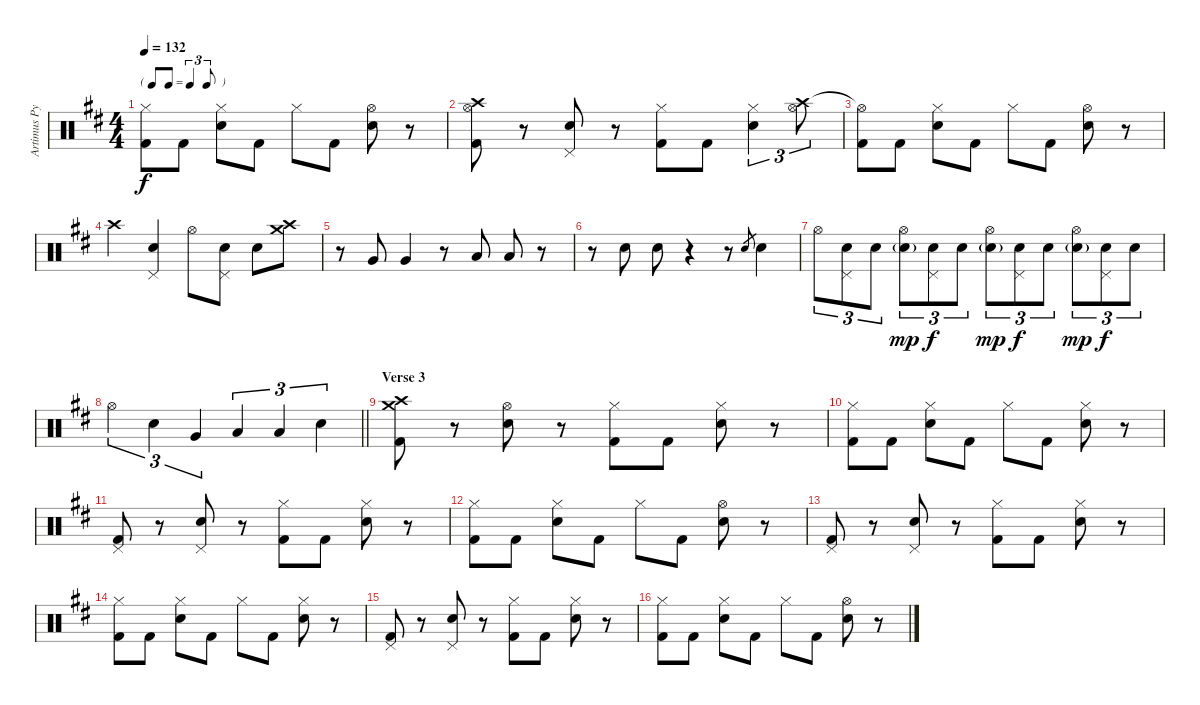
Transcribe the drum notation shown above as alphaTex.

\track ("Artimus Pyle - Drums" "Artimus Py") {solo instrument percussion}
\staff {score}
\articulation defaults
\ts (4 4)
\tf triplet8th
\tempo 132
\clef neutral
\ks d
("Hi-Hat (closed)"{t} "Kick (hit) 2").8{dy f} "Kick (hit) 2".8 ("Snare (hit) 2" "Hi-Hat (closed)").8 "Kick (hit) 2".8 "Hi-Hat (closed)".8 "Kick (hit) 2".8 ("Snare (hit) 2" "Hi-Hat (open)").8 r.8 |
("Crash high (hit)" "Hi-Hat (open)" "Kick (hit) 2").8 r.8 ("Snare (hit) 2" "Pedal Hi-Hat (hit)").8 r.8 ("Hi-Hat (closed)" "Kick (hit) 2").8 "Kick (hit) 2".8 ("Snare (hit) 2" "Hi-Hat (closed)").4{tu (3 2)} ("Crash high (hit)" "Hi-Hat (open)").8{tu (3 2)} |
("Hi-Hat (open)"{t} "Kick (hit) 2").8 "Kick (hit) 2".8 ("Snare (hit) 2" "Hi-Hat (closed)").8 "Kick (hit) 2".8 "Hi-Hat (closed)".8 "Kick (hit) 2".8 ("Snare (hit) 2" "Hi-Hat (open)").8 r.8 |
"Crash high (hit)".4 ("Snare (hit) 2" "Pedal Hi-Hat (hit)").4 "Hi-Hat (open)".8 ("Snare (hit) 2" "Pedal Hi-Hat (hit)").8 "Snare (hit) 2".8 ("Crash high (hit)" "Crash medium (hit)").8 |
r.8 "Very Low Tom (hit)".8 "Very Low Tom (hit)".4 r.8 "Low Tom (hit)".8 "Low Tom (hit)".8 r.8 |
r.8 "Snare (hit) 2".8 "Snare (hit) 2".8 r.4 r.8 "Snare (hit) 2".8{gr} "Snare (hit) 2".4 |
"Hi-Hat (open)".8{tu (3 2)} ("Snare (hit) 2" "Pedal Hi-Hat (hit)").8{tu (3 2)} "Snare (hit) 2".8{tu (3 2)} ("Snare (hit) 2"{g} "Hi-Hat (open)").8{tu (3 2) dy mp} ("Snare (hit) 2" "Pedal Hi-Hat (hit)").8{tu (3 2) dy f} "Snare (hit) 2".8{tu (3 2)} ("Snare (hit) 2"{g} "Hi-Hat (open)").8{tu (3 2) dy mp} ("Snare (hit) 2" "Pedal Hi-Hat (hit)").8{tu (3 2) dy f} "Snare (hit) 2".8{tu (3 2)} ("Snare (hit) 2"{g} "Hi-Hat (open)").8{tu (3 2) dy mp} ("Snare (hit) 2" "Pedal Hi-Hat (hit)").8{tu (3 2) dy f} "Snare (hit) 2".8{tu (3 2)} |
\barLineRight lightlight "Hi-Hat (open)".4{tu (3 2)} "Snare (hit) 2".4{tu (3 2)} "Very Low Tom (hit)".4{tu (3 2)} "Low Floor Tom (hit)".4{tu (3 2)} "Low Tom (hit)".4{tu (3 2)} "Snare (hit) 2".4{tu (3 2)}
|
\section ("" "Verse 3")
("Crash medium (hit)" "Crash high (hit)" "Kick (hit) 2").8 r.8 ("Snare (hit) 2" "Hi-Hat (open)").8 r.8 ("Hi-Hat (closed)" "Kick (hit) 2").8 "Kick (hit) 2".8 ("Snare (hit) 2" "Hi-Hat (closed)").8 r.8 |
("Hi-Hat (closed)" "Kick (hit) 2").8 "Kick (hit) 2".8 ("Snare (hit) 2" "Hi-Hat (closed)").8 "Kick (hit) 2".8 "Hi-Hat (closed)".8 "Kick (hit) 2".8 ("Snare (hit) 2" "Hi-Hat (closed)").8 r.8 |
("Pedal Hi-Hat (hit)" "Kick (hit) 2").8 r.8 ("Snare (hit) 2" "Pedal Hi-Hat (hit)").8 r.8 ("Hi-Hat (closed)" "Kick (hit) 2").8 "Kick (hit) 2".8 ("Snare (hit) 2" "Hi-Hat (closed)").8 r.8 |
("Hi-Hat (closed)" "Kick (hit) 2").8 "Kick (hit) 2".8 ("Snare (hit) 2" "Hi-Hat (closed)").8 "Kick (hit) 2".8 "Hi-Hat (closed)".8 "Kick (hit) 2".8 ("Snare (hit) 2" "Hi-Hat (open)").8 r.8 |
("Pedal Hi-Hat (hit)" "Kick (hit) 2").8 r.8 ("Snare (hit) 2" "Pedal Hi-Hat (hit)").8 r.8 ("Hi-Hat (closed)" "Kick (hit) 2").8 "Kick (hit) 2".8 ("Snare (hit) 2" "Hi-Hat (closed)").8 r.8 |
("Hi-Hat (closed)" "Kick (hit) 2").8 "Kick (hit) 2".8 ("Snare (hit) 2" "Hi-Hat (closed)").8 "Kick (hit) 2".8 "Hi-Hat (closed)".8 "Kick (hit) 2".8 ("Snare (hit) 2" "Hi-Hat (closed)").8 r.8 |
("Pedal Hi-Hat (hit)" "Kick (hit) 2").8 r.8 ("Snare (hit) 2" "Pedal Hi-Hat (hit)").8 r.8 ("Hi-Hat (closed)" "Kick (hit) 2").8 "Kick (hit) 2".8 ("Snare (hit) 2" "Hi-Hat (closed)").8 r.8 |
("Hi-Hat (closed)" "Kick (hit) 2").8 "Kick (hit) 2".8 ("Snare (hit) 2" "Hi-Hat (closed)").8 "Kick (hit) 2".8 "Hi-Hat (closed)".8 "Kick (hit) 2".8 ("Snare (hit) 2" "Hi-Hat (open)").8 r.8
